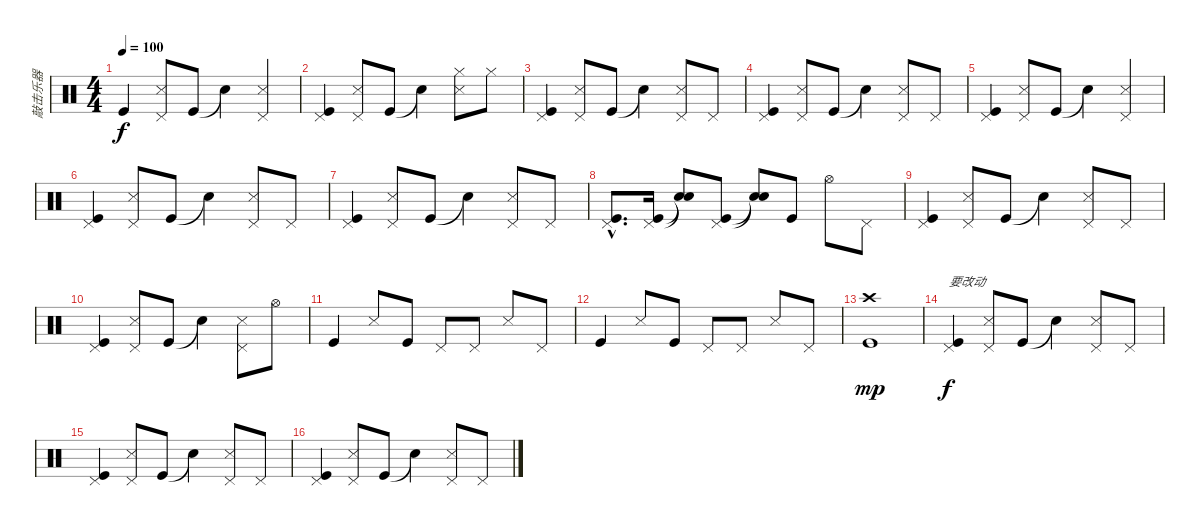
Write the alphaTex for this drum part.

\track ("敲击乐器" "敲击乐器") {instrument percussion}
\staff {score}
\articulation defaults
\ts (4 4)
\tempo 100
\clef neutral
\ks c "Kick (hit)".4{dy f}
("Pedal Hi-Hat (hit)" "Snare (side stick) 3").8 "Kick (hit)".8 "Snare (hit)"{t}.4 ("Pedal Hi-Hat (hit)" "Snare (side stick) 3").4 |
("Pedal Hi-Hat (hit)" "Kick (hit)").4 ("Pedal Hi-Hat (hit)" "Snare (side stick) 3").8 "Kick (hit)".8 "Snare (hit)"{t}.4 ("Hi-Hat (closed)" "Snare (side stick) 3").8 "Hi-Hat (closed)".8 |
("Pedal Hi-Hat (hit)" "Kick (hit)").4 ("Pedal Hi-Hat (hit)" "Snare (side stick) 3").8 "Kick (hit)".8 "Snare (hit)"{t}.4 ("Pedal Hi-Hat (hit)" "Snare (side stick) 3").8 "Pedal Hi-Hat (hit)".8 |
("Pedal Hi-Hat (hit)" "Kick (hit)").4 ("Pedal Hi-Hat (hit)" "Snare (side stick) 3").8 "Kick (hit)".8 "Snare (hit)"{t}.4 ("Pedal Hi-Hat (hit)" "Snare (side stick) 3").8 "Pedal Hi-Hat (hit)".8 |
("Pedal Hi-Hat (hit)" "Kick (hit)").4 ("Pedal Hi-Hat (hit)" "Snare (side stick) 3").8 "Kick (hit)".8 "Snare (hit)"{t}.4 ("Pedal Hi-Hat (hit)" "Snare (side stick) 3").4 |
("Pedal Hi-Hat (hit)" "Kick (hit)").4 ("Pedal Hi-Hat (hit)" "Snare (side stick) 3").8 "Kick (hit)".8 "Snare (hit)"{t}.4 ("Pedal Hi-Hat (hit)" "Snare (side stick) 3").8 "Pedal Hi-Hat (hit)".8 |
("Pedal Hi-Hat (hit)" "Kick (hit)").4 ("Pedal Hi-Hat (hit)" "Snare (side stick) 3").8 "Kick (hit)".8 "Snare (hit)"{t}.4 ("Pedal Hi-Hat (hit)" "Snare (side stick) 3").8 "Pedal Hi-Hat (hit)".8 |
("Pedal Hi-Hat (hit)"{hac} "Kick (hit)"{hac}).8{d} ("Pedal Hi-Hat (hit)" "Kick (hit)").16 ("Snare (hit)"{t} "Snare (hit)"{t}).8 ("Pedal Hi-Hat (hit)" "Kick (hit)").8 ("Snare (hit)"{t} "Snare (hit)"{t}).8 "Kick (hit)".8 "Hi-Hat (open)".8 "Pedal Hi-Hat (hit)".8 |
("Pedal Hi-Hat (hit)" "Kick (hit)").4 ("Pedal Hi-Hat (hit)" "Snare (side stick) 3").8 "Kick (hit)".8 "Snare (hit)"{t}.4 ("Pedal Hi-Hat (hit)" "Snare (side stick) 3").8 "Pedal Hi-Hat (hit)".8 |
("Pedal Hi-Hat (hit)" "Kick (hit)").4 ("Pedal Hi-Hat (hit)" "Snare (side stick) 3").8 "Kick (hit)".8 "Snare (hit)"{t}.4 ("Pedal Hi-Hat (hit)" "Snare (side stick) 3").8 "Hi-Hat (open)".8 |
"Kick (hit)".4 "Snare (side stick) 3".8 "Kick (hit)".8 "Pedal Hi-Hat (hit)".8 "Pedal Hi-Hat (hit)".8 "Snare (side stick) 3".8 "Pedal Hi-Hat (hit)".8 |
"Kick (hit)".4 "Snare (side stick) 3".8 "Kick (hit)".8 "Pedal Hi-Hat (hit)".8 "Pedal Hi-Hat (hit)".8 "Snare (side stick) 3".8 "Pedal Hi-Hat (hit)".8 |
("Crash high (hit)" "Kick (hit)").1{dy mp} |
("Pedal Hi-Hat (hit)" "Kick (hit)").4{txt "要改动" dy f} ("Pedal Hi-Hat (hit)" "Snare (side stick) 3").8 "Kick (hit)".8 "Snare (hit)"{t}.4 ("Pedal Hi-Hat (hit)" "Snare (side stick) 3").8 "Pedal Hi-Hat (hit)".8 |
("Pedal Hi-Hat (hit)" "Kick (hit)").4 ("Pedal Hi-Hat (hit)" "Snare (side stick) 3").8 "Kick (hit)".8 "Snare (hit)"{t}.4 ("Pedal Hi-Hat (hit)" "Snare (side stick) 3").8 "Pedal Hi-Hat (hit)".8 |
("Pedal Hi-Hat (hit)" "Kick (hit)").4 ("Pedal Hi-Hat (hit)" "Snare (side stick) 3").8 "Kick (hit)".8 "Snare (hit)"{t}.4 ("Pedal Hi-Hat (hit)" "Snare (side stick) 3").8 "Pedal Hi-Hat (hit)".8
